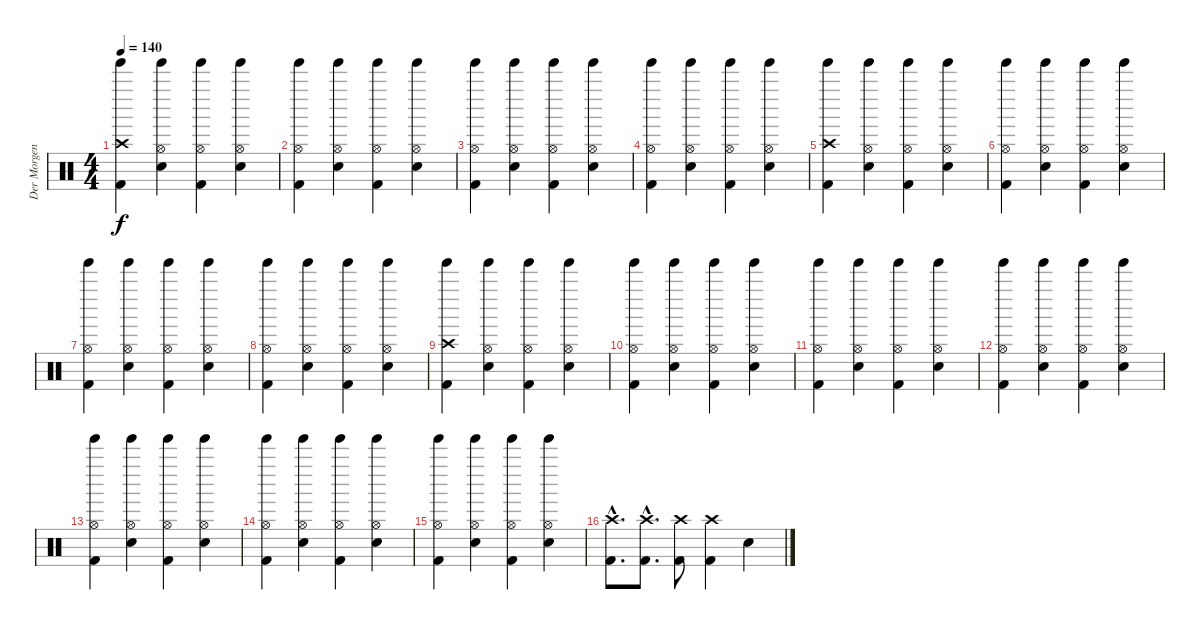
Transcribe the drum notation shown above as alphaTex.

\track ("Der Morgenstern" "Der Morgen") {instrument percussion}
\staff {score}
\articulation defaults
\ts (4 4)
\tempo 140
\clef neutral
\ks c
("Crash high (hit)" "Tinkle Bell (hit)" "Kick (hit) 2").4{dy f} ("Hi-Hat (open)" "Tinkle Bell (hit)" "Snare (hit) 2").4 ("Hi-Hat (open)" "Tinkle Bell (hit)" "Kick (hit) 2").4 ("Hi-Hat (open)" "Tinkle Bell (hit)" "Snare (hit) 2").4 |
("Hi-Hat (open)" "Tinkle Bell (hit)" "Kick (hit) 2").4 ("Hi-Hat (open)" "Tinkle Bell (hit)" "Snare (hit) 2").4 ("Hi-Hat (open)" "Tinkle Bell (hit)" "Kick (hit) 2").4 ("Hi-Hat (open)" "Tinkle Bell (hit)" "Snare (hit) 2").4 |
("Hi-Hat (open)" "Tinkle Bell (hit)" "Kick (hit) 2").4 ("Hi-Hat (open)" "Tinkle Bell (hit)" "Snare (hit) 2").4 ("Hi-Hat (open)" "Tinkle Bell (hit)" "Kick (hit) 2").4 ("Hi-Hat (open)" "Tinkle Bell (hit)" "Snare (hit) 2").4 |
("Hi-Hat (open)" "Tinkle Bell (hit)" "Kick (hit) 2").4 ("Hi-Hat (open)" "Tinkle Bell (hit)" "Snare (hit) 2").4 ("Hi-Hat (open)" "Tinkle Bell (hit)" "Kick (hit) 2").4 ("Hi-Hat (open)" "Tinkle Bell (hit)" "Snare (hit) 2").4 |
("Crash high (hit)" "Tinkle Bell (hit)" "Kick (hit) 2").4 ("Hi-Hat (open)" "Tinkle Bell (hit)" "Snare (hit) 2").4 ("Hi-Hat (open)" "Tinkle Bell (hit)" "Kick (hit) 2").4 ("Hi-Hat (open)" "Tinkle Bell (hit)" "Snare (hit) 2").4 |
("Hi-Hat (open)" "Tinkle Bell (hit)" "Kick (hit) 2").4 ("Hi-Hat (open)" "Tinkle Bell (hit)" "Snare (hit) 2").4 ("Hi-Hat (open)" "Tinkle Bell (hit)" "Kick (hit) 2").4 ("Hi-Hat (open)" "Tinkle Bell (hit)" "Snare (hit) 2").4 |
("Hi-Hat (open)" "Tinkle Bell (hit)" "Kick (hit) 2").4 ("Hi-Hat (open)" "Tinkle Bell (hit)" "Snare (hit) 2").4 ("Hi-Hat (open)" "Tinkle Bell (hit)" "Kick (hit) 2").4 ("Hi-Hat (open)" "Tinkle Bell (hit)" "Snare (hit) 2").4 |
("Hi-Hat (open)" "Tinkle Bell (hit)" "Kick (hit) 2").4 ("Hi-Hat (open)" "Tinkle Bell (hit)" "Snare (hit) 2").4 ("Hi-Hat (open)" "Tinkle Bell (hit)" "Kick (hit) 2").4 ("Hi-Hat (open)" "Tinkle Bell (hit)" "Snare (hit) 2").4 |
("Crash high (hit)" "Tinkle Bell (hit)" "Kick (hit) 2").4 ("Hi-Hat (open)" "Tinkle Bell (hit)" "Snare (hit) 2").4 ("Hi-Hat (open)" "Tinkle Bell (hit)" "Kick (hit) 2").4 ("Hi-Hat (open)" "Tinkle Bell (hit)" "Snare (hit) 2").4 |
("Hi-Hat (open)" "Tinkle Bell (hit)" "Kick (hit) 2").4 ("Hi-Hat (open)" "Tinkle Bell (hit)" "Snare (hit) 2").4 ("Hi-Hat (open)" "Tinkle Bell (hit)" "Kick (hit) 2").4 ("Hi-Hat (open)" "Tinkle Bell (hit)" "Snare (hit) 2").4 |
("Hi-Hat (open)" "Tinkle Bell (hit)" "Kick (hit) 2").4 ("Hi-Hat (open)" "Tinkle Bell (hit)" "Snare (hit) 2").4 ("Hi-Hat (open)" "Tinkle Bell (hit)" "Kick (hit) 2").4 ("Hi-Hat (open)" "Tinkle Bell (hit)" "Snare (hit) 2").4 |
("Hi-Hat (open)" "Tinkle Bell (hit)" "Kick (hit) 2").4 ("Hi-Hat (open)" "Tinkle Bell (hit)" "Snare (hit) 2").4 ("Hi-Hat (open)" "Tinkle Bell (hit)" "Kick (hit) 2").4 ("Hi-Hat (open)" "Tinkle Bell (hit)" "Snare (hit) 2").4 |
("Hi-Hat (open)" "Tinkle Bell (hit)" "Kick (hit) 2").4 ("Hi-Hat (open)" "Tinkle Bell (hit)" "Snare (hit) 2").4 ("Hi-Hat (open)" "Tinkle Bell (hit)" "Kick (hit) 2").4 ("Hi-Hat (open)" "Tinkle Bell (hit)" "Snare (hit) 2").4 |
("Hi-Hat (open)" "Tinkle Bell (hit)" "Kick (hit) 2").4 ("Hi-Hat (open)" "Tinkle Bell (hit)" "Snare (hit) 2").4 ("Hi-Hat (open)" "Tinkle Bell (hit)" "Kick (hit) 2").4 ("Hi-Hat (open)" "Tinkle Bell (hit)" "Snare (hit) 2").4 |
("Hi-Hat (open)" "Tinkle Bell (hit)" "Kick (hit) 2").4 ("Hi-Hat (open)" "Tinkle Bell (hit)" "Snare (hit) 2").4 ("Hi-Hat (open)" "Tinkle Bell (hit)" "Kick (hit) 2").4 ("Hi-Hat (open)" "Tinkle Bell (hit)" "Snare (hit) 2").4 |
("Crash high (hit)"{hac} "Kick (hit) 2"{hac}).8{d} ("Crash high (hit)"{hac} "Kick (hit) 2"{hac}).8{d} ("Crash high (hit)" "Kick (hit) 2").8 ("Crash high (hit)" "Kick (hit) 2").4 "Snare (hit) 2".4
